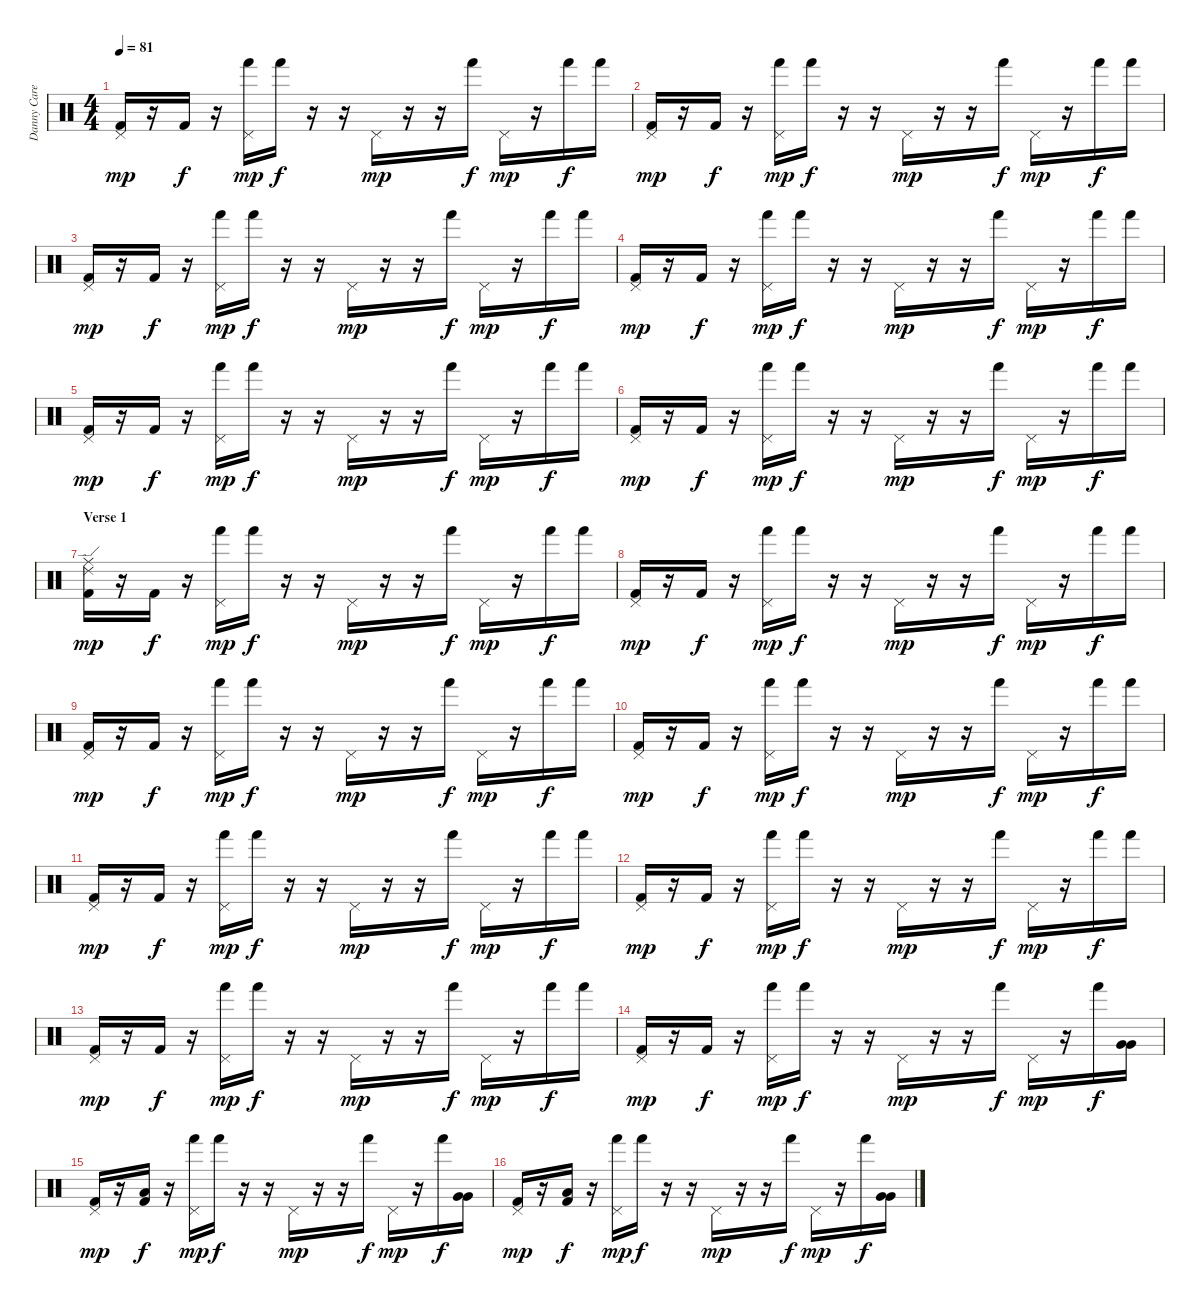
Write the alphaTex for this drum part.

\track ("Danny Carey" "Danny Care") {instrument percussion}
\staff {score}
\articulation defaults
\ts (4 4)
\tempo 81
\clef neutral
\ks c
("Pedal Hi-Hat (hit)" "Kick (hit) 2").16{dy mp} r.16 "Kick (hit) 2".16{dy f} r.16 ("Pedal Hi-Hat (hit)" "Hand (hit)").16{dy mp} "Hand (hit)".16{dy f} r.16 r.16 "Pedal Hi-Hat (hit)".16{dy mp} r.16 r.16 "Hand (hit)".16{dy f} "Pedal Hi-Hat (hit)".16{dy mp} r.16 "Hand (hit)".16{dy f} "Hand (hit)".16 |
("Pedal Hi-Hat (hit)" "Kick (hit) 2").16{dy mp} r.16 "Kick (hit) 2".16{dy f} r.16 ("Pedal Hi-Hat (hit)" "Hand (hit)").16{dy mp} "Hand (hit)".16{dy f} r.16 r.16 "Pedal Hi-Hat (hit)".16{dy mp} r.16 r.16 "Hand (hit)".16{dy f} "Pedal Hi-Hat (hit)".16{dy mp} r.16 "Hand (hit)".16{dy f} "Hand (hit)".16 |
("Pedal Hi-Hat (hit)" "Kick (hit) 2").16{dy mp} r.16 "Kick (hit) 2".16{dy f} r.16 ("Pedal Hi-Hat (hit)" "Hand (hit)").16{dy mp} "Hand (hit)".16{dy f} r.16 r.16 "Pedal Hi-Hat (hit)".16{dy mp} r.16 r.16 "Hand (hit)".16{dy f} "Pedal Hi-Hat (hit)".16{dy mp} r.16 "Hand (hit)".16{dy f} "Hand (hit)".16 |
("Pedal Hi-Hat (hit)" "Kick (hit) 2").16{dy mp} r.16 "Kick (hit) 2".16{dy f} r.16 ("Pedal Hi-Hat (hit)" "Hand (hit)").16{dy mp} "Hand (hit)".16{dy f} r.16 r.16 "Pedal Hi-Hat (hit)".16{dy mp} r.16 r.16 "Hand (hit)".16{dy f} "Pedal Hi-Hat (hit)".16{dy mp} r.16 "Hand (hit)".16{dy f} "Hand (hit)".16 |
("Pedal Hi-Hat (hit)" "Kick (hit) 2").16{dy mp} r.16 "Kick (hit) 2".16{dy f} r.16 ("Pedal Hi-Hat (hit)" "Hand (hit)").16{dy mp} "Hand (hit)".16{dy f} r.16 r.16 "Pedal Hi-Hat (hit)".16{dy mp} r.16 r.16 "Hand (hit)".16{dy f} "Pedal Hi-Hat (hit)".16{dy mp} r.16 "Hand (hit)".16{dy f} "Hand (hit)".16 |
("Pedal Hi-Hat (hit)" "Kick (hit) 2").16{dy mp} r.16 "Kick (hit) 2".16{dy f} r.16 ("Pedal Hi-Hat (hit)" "Hand (hit)").16{dy mp} "Hand (hit)".16{dy f} r.16 r.16 "Pedal Hi-Hat (hit)".16{dy mp} r.16 r.16 "Hand (hit)".16{dy f} "Pedal Hi-Hat (hit)".16{dy mp} r.16 "Hand (hit)".16{dy f} "Hand (hit)".16 |
\section ("" "Verse 1")
("Ride (edge) 2" "Ride (middle)" "Kick (hit) 2").16{dy mp} r.16 "Kick (hit) 2".16{dy f} r.16 ("Pedal Hi-Hat (hit)" "Hand (hit)").16{dy mp} "Hand (hit)".16{dy f} r.16 r.16 "Pedal Hi-Hat (hit)".16{dy mp} r.16 r.16 "Hand (hit)".16{dy f} "Pedal Hi-Hat (hit)".16{dy mp} r.16 "Hand (hit)".16{dy f} "Hand (hit)".16 |
("Pedal Hi-Hat (hit)" "Kick (hit) 2").16{dy mp} r.16 "Kick (hit) 2".16{dy f} r.16 ("Pedal Hi-Hat (hit)" "Hand (hit)").16{dy mp} "Hand (hit)".16{dy f} r.16 r.16 "Pedal Hi-Hat (hit)".16{dy mp} r.16 r.16 "Hand (hit)".16{dy f} "Pedal Hi-Hat (hit)".16{dy mp} r.16 "Hand (hit)".16{dy f} "Hand (hit)".16 |
("Pedal Hi-Hat (hit)" "Kick (hit) 2").16{dy mp} r.16 "Kick (hit) 2".16{dy f} r.16 ("Pedal Hi-Hat (hit)" "Hand (hit)").16{dy mp} "Hand (hit)".16{dy f} r.16 r.16 "Pedal Hi-Hat (hit)".16{dy mp} r.16 r.16 "Hand (hit)".16{dy f} "Pedal Hi-Hat (hit)".16{dy mp} r.16 "Hand (hit)".16{dy f} "Hand (hit)".16 |
("Pedal Hi-Hat (hit)" "Kick (hit) 2").16{dy mp} r.16 "Kick (hit) 2".16{dy f} r.16 ("Pedal Hi-Hat (hit)" "Hand (hit)").16{dy mp} "Hand (hit)".16{dy f} r.16 r.16 "Pedal Hi-Hat (hit)".16{dy mp} r.16 r.16 "Hand (hit)".16{dy f} "Pedal Hi-Hat (hit)".16{dy mp} r.16 "Hand (hit)".16{dy f} "Hand (hit)".16 |
("Pedal Hi-Hat (hit)" "Kick (hit) 2").16{dy mp} r.16 "Kick (hit) 2".16{dy f} r.16 ("Pedal Hi-Hat (hit)" "Hand (hit)").16{dy mp} "Hand (hit)".16{dy f} r.16 r.16 "Pedal Hi-Hat (hit)".16{dy mp} r.16 r.16 "Hand (hit)".16{dy f} "Pedal Hi-Hat (hit)".16{dy mp} r.16 "Hand (hit)".16{dy f} "Hand (hit)".16 |
("Pedal Hi-Hat (hit)" "Kick (hit) 2").16{dy mp} r.16 "Kick (hit) 2".16{dy f} r.16 ("Pedal Hi-Hat (hit)" "Hand (hit)").16{dy mp} "Hand (hit)".16{dy f} r.16 r.16 "Pedal Hi-Hat (hit)".16{dy mp} r.16 r.16 "Hand (hit)".16{dy f} "Pedal Hi-Hat (hit)".16{dy mp} r.16 "Hand (hit)".16{dy f} "Hand (hit)".16 |
("Pedal Hi-Hat (hit)" "Kick (hit) 2").16{dy mp} r.16 "Kick (hit) 2".16{dy f} r.16 ("Pedal Hi-Hat (hit)" "Hand (hit)").16{dy mp} "Hand (hit)".16{dy f} r.16 r.16 "Pedal Hi-Hat (hit)".16{dy mp} r.16 r.16 "Hand (hit)".16{dy f} "Pedal Hi-Hat (hit)".16{dy mp} r.16 "Hand (hit)".16{dy f} "Hand (hit)".16 |
("Pedal Hi-Hat (hit)" "Kick (hit) 2").16{dy mp} r.16 "Kick (hit) 2".16{dy f} r.16 ("Pedal Hi-Hat (hit)" "Hand (hit)").16{dy mp} "Hand (hit)".16{dy f} r.16 r.16 "Pedal Hi-Hat (hit)".16{dy mp} r.16 r.16 "Hand (hit)".16{dy f} "Pedal Hi-Hat (hit)".16{dy mp} r.16 "Hand (hit)".16{dy f} ("Very Low Tom (hit)" "Very Low Tom (hit)").16 |
("Pedal Hi-Hat (hit)" "Kick (hit) 2").16{dy mp} r.16 ("Low Floor Tom (hit)" "Kick (hit) 2").16{dy f} r.16 ("Pedal Hi-Hat (hit)" "Hand (hit)").16{dy mp} "Hand (hit)".16{dy f} r.16 r.16 "Pedal Hi-Hat (hit)".16{dy mp} r.16 r.16 "Hand (hit)".16{dy f} "Pedal Hi-Hat (hit)".16{dy mp} r.16 "Hand (hit)".16{dy f} ("Very Low Tom (hit)" "Very Low Tom (hit)").16 |
("Pedal Hi-Hat (hit)" "Kick (hit) 2").16{dy mp} r.16 ("Low Floor Tom (hit)" "Kick (hit) 2").16{dy f} r.16 ("Pedal Hi-Hat (hit)" "Hand (hit)").16{dy mp} "Hand (hit)".16{dy f} r.16 r.16 "Pedal Hi-Hat (hit)".16{dy mp} r.16 r.16 "Hand (hit)".16{dy f} "Pedal Hi-Hat (hit)".16{dy mp} r.16 "Hand (hit)".16{dy f} ("Very Low Tom (hit)" "Very Low Tom (hit)").16
